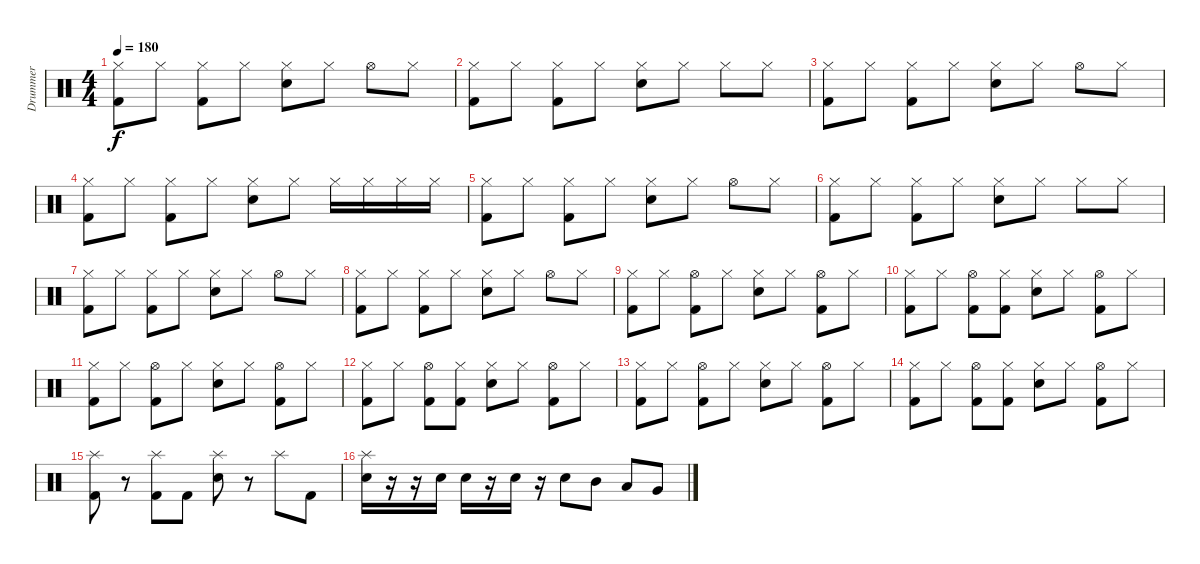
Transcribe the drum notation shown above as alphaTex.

\track ("Drummer" "Drummer") {instrument percussion}
\staff {score}
\articulation defaults
\ts (4 4)
\tempo 180
\clef neutral
\ks c
("Hi-Hat (closed)" "Kick (hit) 2").8{dy f} "Hi-Hat (closed)".8 ("Hi-Hat (closed)" "Kick (hit) 2").8 "Hi-Hat (closed)".8 ("Hi-Hat (closed)" "Electric Snare (hit)").8 "Hi-Hat (closed)".8 "Hi-Hat (open)".8 "Hi-Hat (closed)".8 |
("Hi-Hat (closed)" "Kick (hit) 2").8 "Hi-Hat (closed)".8 ("Hi-Hat (closed)" "Kick (hit) 2").8 "Hi-Hat (closed)".8 ("Hi-Hat (closed)" "Electric Snare (hit)").8 "Hi-Hat (closed)".8 "Hi-Hat (closed)".8 "Hi-Hat (closed)".8 |
("Hi-Hat (closed)" "Kick (hit) 2").8 "Hi-Hat (closed)".8 ("Hi-Hat (closed)" "Kick (hit) 2").8 "Hi-Hat (closed)".8 ("Hi-Hat (closed)" "Electric Snare (hit)").8 "Hi-Hat (closed)".8 "Hi-Hat (open)".8 "Hi-Hat (closed)".8 |
("Hi-Hat (closed)" "Kick (hit) 2").8 "Hi-Hat (closed)".8 ("Hi-Hat (closed)" "Kick (hit) 2").8 "Hi-Hat (closed)".8 ("Hi-Hat (closed)" "Electric Snare (hit)").8 "Hi-Hat (closed)".8 "Hi-Hat (closed)".16 "Hi-Hat (closed)".16 "Hi-Hat (closed)".16 "Hi-Hat (closed)".16 |
("Hi-Hat (closed)" "Kick (hit) 2").8 "Hi-Hat (closed)".8 ("Hi-Hat (closed)" "Kick (hit) 2").8 "Hi-Hat (closed)".8 ("Hi-Hat (closed)" "Electric Snare (hit)").8 "Hi-Hat (closed)".8 "Hi-Hat (open)".8 "Hi-Hat (closed)".8 |
("Hi-Hat (closed)" "Kick (hit) 2").8 "Hi-Hat (closed)".8 ("Hi-Hat (closed)" "Kick (hit) 2").8 "Hi-Hat (closed)".8 ("Hi-Hat (closed)" "Electric Snare (hit)").8 "Hi-Hat (closed)".8 "Hi-Hat (closed)".8 "Hi-Hat (closed)".8 |
("Hi-Hat (closed)" "Kick (hit) 2").8 "Hi-Hat (closed)".8 ("Hi-Hat (closed)" "Kick (hit) 2").8 "Hi-Hat (closed)".8 ("Hi-Hat (closed)" "Electric Snare (hit)").8 "Hi-Hat (closed)".8 "Hi-Hat (open)".8 "Hi-Hat (closed)".8 |
("Hi-Hat (closed)" "Kick (hit) 2").8 "Hi-Hat (closed)".8 ("Hi-Hat (closed)" "Kick (hit) 2").8 "Hi-Hat (closed)".8 ("Hi-Hat (closed)" "Electric Snare (hit)").8 "Hi-Hat (closed)".8 "Hi-Hat (open)".8 "Hi-Hat (closed)".8 |
("Hi-Hat (closed)" "Kick (hit) 2").8 "Hi-Hat (closed)".8 ("Hi-Hat (open)" "Kick (hit) 2").8 "Hi-Hat (closed)".8 ("Hi-Hat (closed)" "Electric Snare (hit)").8 "Hi-Hat (closed)".8 ("Hi-Hat (open)" "Kick (hit) 2").8 "Hi-Hat (closed)".8 |
("Hi-Hat (closed)" "Kick (hit) 2").8 "Hi-Hat (closed)".8 ("Hi-Hat (open)" "Kick (hit) 2").8 ("Hi-Hat (closed)" "Kick (hit) 2").8 ("Hi-Hat (closed)" "Electric Snare (hit)").8 "Hi-Hat (closed)".8 ("Hi-Hat (open)" "Kick (hit) 2").8 "Hi-Hat (closed)".8 |
("Hi-Hat (closed)" "Kick (hit) 2").8 "Hi-Hat (closed)".8 ("Hi-Hat (open)" "Kick (hit) 2").8 "Hi-Hat (closed)".8 ("Hi-Hat (closed)" "Electric Snare (hit)").8 "Hi-Hat (closed)".8 ("Hi-Hat (open)" "Kick (hit) 2").8 "Hi-Hat (closed)".8 |
("Hi-Hat (closed)" "Kick (hit) 2").8 "Hi-Hat (closed)".8 ("Hi-Hat (open)" "Kick (hit) 2").8 ("Hi-Hat (closed)" "Kick (hit) 2").8 ("Hi-Hat (closed)" "Electric Snare (hit)").8 "Hi-Hat (closed)".8 ("Hi-Hat (open)" "Kick (hit) 2").8 "Hi-Hat (closed)".8 |
("Hi-Hat (closed)" "Kick (hit) 2").8 "Hi-Hat (closed)".8 ("Hi-Hat (open)" "Kick (hit) 2").8 "Hi-Hat (closed)".8 ("Hi-Hat (closed)" "Electric Snare (hit)").8 "Hi-Hat (closed)".8 ("Hi-Hat (open)" "Kick (hit) 2").8 "Hi-Hat (closed)".8 |
("Hi-Hat (closed)" "Kick (hit) 2").8 "Hi-Hat (closed)".8 ("Hi-Hat (open)" "Kick (hit) 2").8 ("Hi-Hat (closed)" "Kick (hit) 2").8 ("Hi-Hat (closed)" "Electric Snare (hit)").8 "Hi-Hat (closed)".8 ("Hi-Hat (open)" "Kick (hit) 2").8 "Hi-Hat (closed)".8 |
("Splash (hit)" "Kick (hit) 2").8 r.8 ("Splash (hit)" "Kick (hit) 2").8 "Kick (hit) 2".8 ("Splash (hit)" "Electric Snare (hit)").8 r.8 "Splash (hit)".8 "Kick (hit) 2".8 |
("Splash (hit)" "Electric Snare (hit)").16 r.16 r.16 "Electric Snare (hit)".16 "Electric Snare (hit)".16 r.16 "Electric Snare (hit)".16 r.16 "Electric Snare (hit)".8 "Mid Tom (hit)".8 "Low Tom (hit)".8 "Very Low Tom (hit)".8
